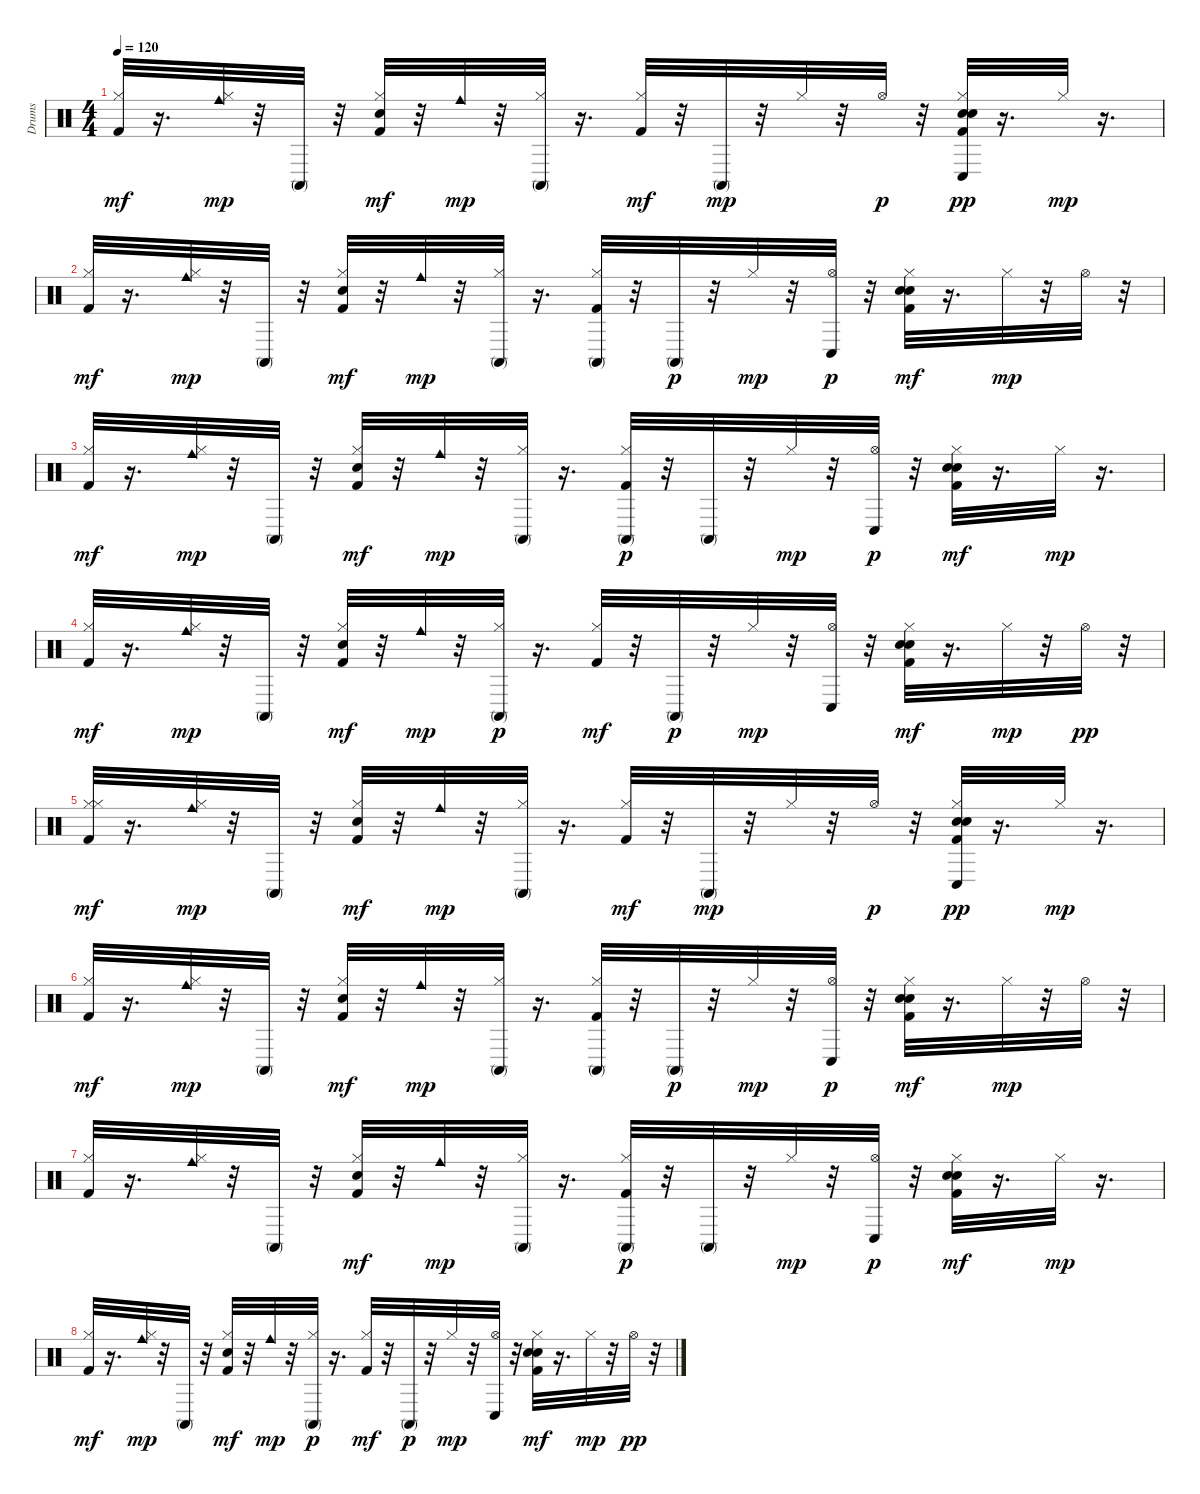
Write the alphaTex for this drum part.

\track ("Drums" "Drums") {instrument percussion}
\staff {score}
\articulation defaults
\ts (4 4)
\tempo 120
\clef neutral
\ks c
("Hi-Hat (closed)" "Kick (hit) 2").32{dy mf} r.16{d} ("Hi-Hat (closed)" "Cowbell medium (hit)").32{dy mp} r.32 "Conga high (mute)".32 r.32 ("Hi-Hat (closed)" "Electric Snare (hit)" "Kick (hit) 2").32{dy mf} r.32 "Cowbell medium (hit)".32{dy mp} r.32 ("Hi-Hat (closed)" "Conga high (mute)").32 r.16{d} ("Hi-Hat (closed)" "Kick (hit) 2").32{dy mf} r.32 "Conga high (mute)".32{dy mp} r.32 "Hi-Hat (closed)".32 r.32 "Hi-Hat (open)".32{dy p} r.32 ("Hi-Hat (closed)" "Kick (hit) 2" "Hand Clap (hit)" "Electric Snare (hit)" "Conga low (hit)").32{dy pp} r.16{d} "Hi-Hat (closed)".32{dy mp} r.16{d} |
("Hi-Hat (closed)" "Kick (hit) 2").32{dy mf} r.16{d} ("Hi-Hat (closed)" "Cowbell medium (hit)").32{dy mp} r.32 "Conga high (mute)".32 r.32 ("Hi-Hat (closed)" "Electric Snare (hit)" "Kick (hit) 2").32{dy mf} r.32 "Cowbell medium (hit)".32{dy mp} r.32 ("Hi-Hat (closed)" "Conga high (mute)").32 r.16{d} ("Hi-Hat (closed)" "Kick (hit) 2" "Conga high (mute)").32 r.32 "Conga high (mute)".32{dy p} r.32 "Hi-Hat (closed)".32{dy mp} r.32 ("Hi-Hat (open)" "Conga low (hit)").32{dy p} r.32 ("Kick (hit) 2" "Hi-Hat (closed)" "Electric Snare (hit)" "Hand Clap (hit)").32{dy mf} r.16{d} "Hi-Hat (closed)".32{dy mp} r.32 "Hi-Hat (open)".32 r.32 |
("Hi-Hat (closed)" "Kick (hit) 2").32{dy mf} r.16{d} ("Hi-Hat (closed)" "Cowbell medium (hit)").32{dy mp} r.32 "Conga high (mute)".32 r.32 ("Hi-Hat (closed)" "Electric Snare (hit)" "Kick (hit) 2").32{dy mf} r.32 "Cowbell medium (hit)".32{dy mp} r.32 ("Hi-Hat (closed)" "Conga high (mute)").32 r.16{d} ("Kick (hit) 2" "Hi-Hat (closed)" "Conga high (mute)").32{dy p} r.32 "Conga high (mute)".32 r.32 "Hi-Hat (closed)".32{dy mp} r.32 ("Hi-Hat (open)" "Conga low (hit)").32{dy p} r.32 ("Hi-Hat (closed)" "Hand Clap (hit)" "Electric Snare (hit)" "Kick (hit) 2").32{dy mf} r.16{d} "Hi-Hat (closed)".32{dy mp} r.16{d} |
("Hi-Hat (closed)" "Kick (hit) 2").32{dy mf} r.16{d} ("Hi-Hat (closed)" "Cowbell medium (hit)").32{dy mp} r.32 "Conga high (mute)".32 r.32 ("Hi-Hat (closed)" "Electric Snare (hit)" "Kick (hit) 2").32{dy mf} r.32 "Cowbell medium (hit)".32{dy mp} r.32 ("Hi-Hat (closed)" "Conga high (mute)").32{dy p} r.16{d} ("Hi-Hat (closed)" "Kick (hit) 2").32{dy mf} r.32 "Conga high (mute)".32{dy p} r.32 "Hi-Hat (closed)".32{dy mp} r.32 ("Hi-Hat (open)" "Conga low (hit)").32 r.32 ("Kick (hit) 2" "Hi-Hat (closed)" "Electric Snare (hit)" "Hand Clap (hit)").32{dy mf} r.16{d} "Hi-Hat (closed)".32{dy mp} r.32 "Hi-Hat (open)".32{dy pp} r.32 |
("Hi-Hat (closed)" "Hi-Hat (closed)" "Kick (hit) 2").32{dy mf} r.16{d} ("Hi-Hat (closed)" "Cowbell medium (hit)").32{dy mp} r.32 "Conga high (mute)".32 r.32 ("Hi-Hat (closed)" "Electric Snare (hit)" "Kick (hit) 2").32{dy mf} r.32 "Cowbell medium (hit)".32{dy mp} r.32 ("Hi-Hat (closed)" "Conga high (mute)").32 r.16{d} ("Hi-Hat (closed)" "Kick (hit) 2").32{dy mf} r.32 "Conga high (mute)".32{dy mp} r.32 "Hi-Hat (closed)".32 r.32 "Hi-Hat (open)".32{dy p} r.32 ("Hi-Hat (closed)" "Kick (hit) 2" "Hand Clap (hit)" "Electric Snare (hit)" "Conga low (hit)").32{dy pp} r.16{d} "Hi-Hat (closed)".32{dy mp} r.16{d} |
("Hi-Hat (closed)" "Kick (hit) 2").32{dy mf} r.16{d} ("Hi-Hat (closed)" "Cowbell medium (hit)").32{dy mp} r.32 "Conga high (mute)".32 r.32 ("Hi-Hat (closed)" "Electric Snare (hit)" "Kick (hit) 2").32{dy mf} r.32 "Cowbell medium (hit)".32{dy mp} r.32 ("Hi-Hat (closed)" "Conga high (mute)").32 r.16{d} ("Hi-Hat (closed)" "Kick (hit) 2" "Conga high (mute)").32 r.32 "Conga high (mute)".32{dy p} r.32 "Hi-Hat (closed)".32{dy mp} r.32 ("Hi-Hat (open)" "Conga low (hit)").32{dy p} r.32 ("Kick (hit) 2" "Hi-Hat (closed)" "Electric Snare (hit)" "Hand Clap (hit)").32{dy mf} r.16{d} "Hi-Hat (closed)".32{dy mp} r.32 "Hi-Hat (open)".32 r.32 |
("Kick (hit) 2" "Hi-Hat (closed)").32 r.16{d} ("Hi-Hat (closed)" "Cowbell medium (hit)").32 r.32 "Conga high (mute)".32 r.32 ("Hi-Hat (closed)" "Electric Snare (hit)" "Kick (hit) 2").32{dy mf} r.32 "Cowbell medium (hit)".32{dy mp} r.32 ("Hi-Hat (closed)" "Conga high (mute)").32 r.16{d} ("Hi-Hat (closed)" "Kick (hit) 2" "Conga high (mute)").32{dy p} r.32 "Conga high (mute)".32 r.32 "Hi-Hat (closed)".32{dy mp} r.32 ("Hi-Hat (open)" "Conga low (hit)").32{dy p} r.32 ("Hi-Hat (closed)" "Hand Clap (hit)" "Electric Snare (hit)" "Kick (hit) 2").32{dy mf} r.16{d} "Hi-Hat (closed)".32{dy mp} r.16{d} |
("Hi-Hat (closed)" "Kick (hit) 2").32{dy mf} r.16{d} ("Hi-Hat (closed)" "Cowbell medium (hit)").32{dy mp} r.32 "Conga high (mute)".32 r.32 ("Hi-Hat (closed)" "Electric Snare (hit)" "Kick (hit) 2").32{dy mf} r.32 "Cowbell medium (hit)".32{dy mp} r.32 ("Hi-Hat (closed)" "Conga high (mute)").32{dy p} r.16{d} ("Hi-Hat (closed)" "Kick (hit) 2").32{dy mf} r.32 "Conga high (mute)".32{dy p} r.32 "Hi-Hat (closed)".32{dy mp} r.32 ("Hi-Hat (open)" "Conga low (hit)").32 r.32 ("Kick (hit) 2" "Hi-Hat (closed)" "Electric Snare (hit)" "Hand Clap (hit)").32{dy mf} r.16{d} "Hi-Hat (closed)".32{dy mp} r.32 "Hi-Hat (open)".32{dy pp} r.32
